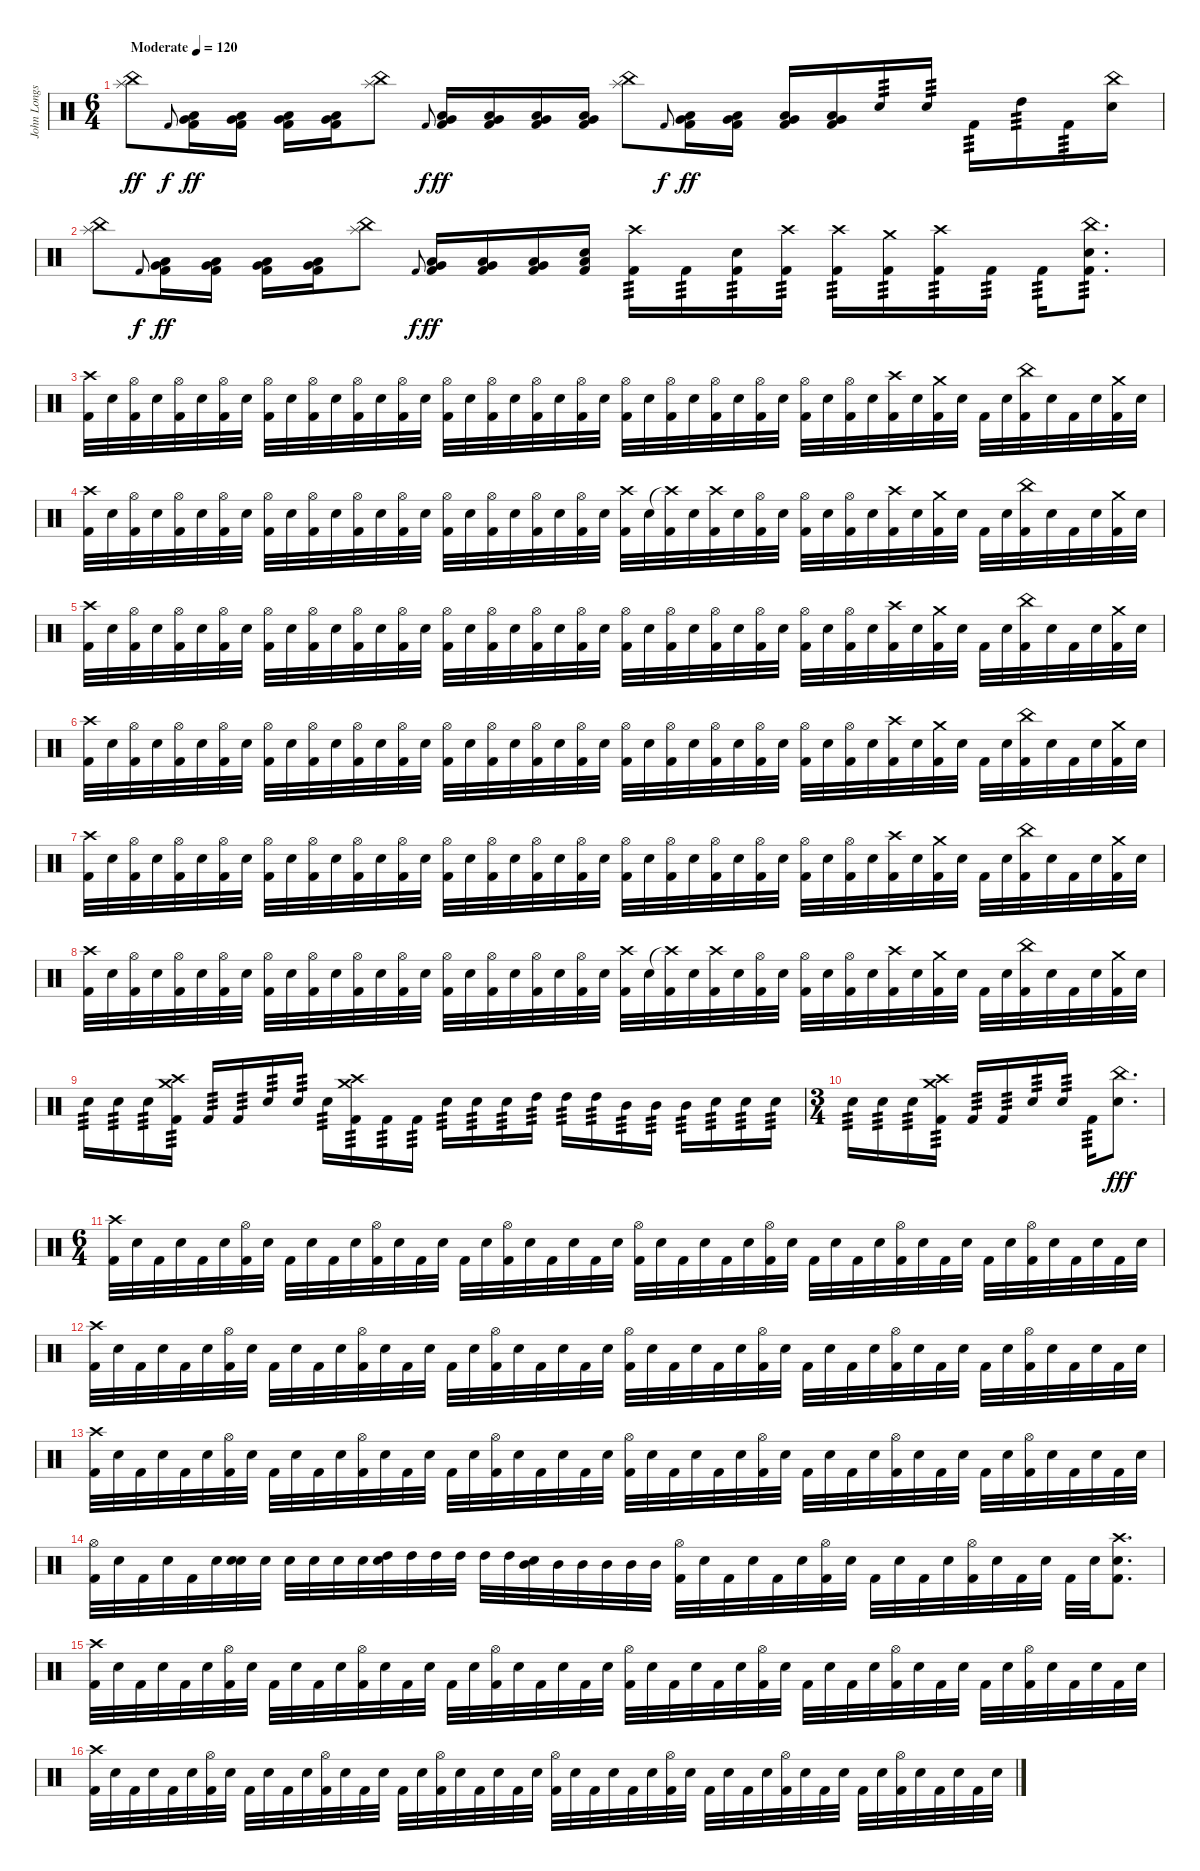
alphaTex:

\track ("John Longstreth" "John Longs") {instrument percussion}
\staff {score}
\articulation defaults
\ts (6 4)
\tempo (120 "Moderate")
\clef neutral
\ks c
("China (hit)" "Splash (hit)").8{dy ff} "Kick (hit) 2".8{gr onbeat dy f} ("Very Low Tom (hit)" "Low Tom (hit)" "Kick (hit) 2").16{dy ff} ("Very Low Tom (hit)" "Low Tom (hit)" "Kick (hit) 2").16 ("Very Low Tom (hit)" "Low Tom (hit)" "Kick (hit) 2").16 ("Very Low Tom (hit)" "Low Tom (hit)" "Kick (hit) 2").16 ("China (hit)" "Splash (hit)").8 "Kick (hit) 2".8{gr onbeat dy f} ("Very Low Tom (hit)" "Low Tom (hit)" "Kick (hit) 2").16{dy ff} ("Very Low Tom (hit)" "Low Tom (hit)" "Kick (hit) 2").16 ("Very Low Tom (hit)" "Low Tom (hit)" "Kick (hit) 2").16 ("Very Low Tom (hit)" "Low Tom (hit)" "Kick (hit) 2").16 ("China (hit)" "Splash (hit)").8 "Kick (hit) 2".8{gr onbeat dy f} ("Very Low Tom (hit)" "Low Tom (hit)" "Kick (hit) 2").16{dy ff} ("Very Low Tom (hit)" "Low Tom (hit)" "Kick (hit) 2").16 ("Very Low Tom (hit)" "Low Tom (hit)" "Kick (hit) 2").16 ("Very Low Tom (hit)" "Low Tom (hit)" "Kick (hit) 2").16 "Snare (hit) 2".16{tp 3} "Snare (hit) 2".16{tp 3} "Kick (hit) 2".16{tp 3} "High Tom (hit)".16{tp 3} "Kick (hit) 2".16{tp 3} ("China (hit)" "Snare (hit) 2").16 |
("China (hit)" "Splash (hit)").8 "Kick (hit) 2".8{gr onbeat dy f} ("Very Low Tom (hit)" "Low Tom (hit)" "Kick (hit) 2").16{dy ff} ("Very Low Tom (hit)" "Low Tom (hit)" "Kick (hit) 2").16 ("Very Low Tom (hit)" "Low Tom (hit)" "Kick (hit) 2").16 ("Very Low Tom (hit)" "Low Tom (hit)" "Kick (hit) 2").16 ("China (hit)" "Splash (hit)").8 "Kick (hit) 2".8{gr onbeat dy f} ("Very Low Tom (hit)" "Low Tom (hit)" "Kick (hit) 2").16{dy ff} ("Very Low Tom (hit)" "Low Tom (hit)" "Kick (hit) 2").16 ("Very Low Tom (hit)" "Low Tom (hit)" "Kick (hit) 2").16 ("Snare (hit) 2" "Low Tom (hit)" "Kick (hit) 2").16 ("Crash high (hit)" "Kick (hit) 2").16{tp 3} "Kick (hit) 2".16{tp 3} ("Snare (hit)" "Kick (hit) 2").16{tp 3} ("Crash high (hit)" "Kick (hit) 2").16{tp 3} ("Crash high (hit)" "Kick (hit) 2").16{tp 3} ("Crash medium (hit)" "Kick (hit) 2").16{tp 3} ("Crash high (hit)" "Kick (hit) 2").16{tp 3} "Kick (hit) 2".16{tp 3} "Kick (hit) 2".16{tp 3} ("China (hit)" "Kick (hit) 2" "Snare (hit) 2").8{d tp 3} |
("Crash high (hit)" "Kick (hit) 2").32 "Snare (hit) 2".32 ("Hi-Hat (open)" "Kick (hit) 2").32 "Snare (hit) 2".32 ("Hi-Hat (open)" "Kick (hit) 2").32 "Snare (hit) 2".32 ("Hi-Hat (open)" "Kick (hit) 2").32 "Snare (hit) 2".32 ("Hi-Hat (open)" "Kick (hit) 2").32 "Snare (hit) 2".32 ("Hi-Hat (open)" "Kick (hit) 2").32 "Snare (hit) 2".32 ("Hi-Hat (open)" "Kick (hit) 2").32 "Snare (hit) 2".32 ("Hi-Hat (open)" "Kick (hit) 2").32 "Snare (hit) 2".32 ("Hi-Hat (open)" "Kick (hit) 2").32 "Snare (hit) 2".32 ("Hi-Hat (open)" "Kick (hit) 2").32 "Snare (hit) 2".32 ("Hi-Hat (open)" "Kick (hit) 2").32 "Snare (hit) 2".32 ("Hi-Hat (open)" "Kick (hit) 2").32 "Snare (hit) 2".32 ("Hi-Hat (open)" "Kick (hit) 2").32 "Snare (hit) 2".32 ("Hi-Hat (open)" "Kick (hit) 2").32 "Snare (hit) 2".32 ("Hi-Hat (open)" "Kick (hit) 2").32 "Snare (hit) 2".32 ("Hi-Hat (open)" "Kick (hit) 2").32 "Snare (hit) 2".32 ("Hi-Hat (open)" "Kick (hit) 2").32 "Snare (hit) 2".32 ("Hi-Hat (open)" "Kick (hit) 2").32 "Snare (hit) 2".32 ("Crash high (hit)" "Kick (hit) 2").32 "Snare (hit) 2".32 ("Crash medium (hit)" "Kick (hit) 2").32 "Snare (hit) 2".32 "Kick (hit) 2".32 "Snare (hit) 2".32 ("China (hit)" "Kick (hit) 2").32 "Snare (hit) 2".32 "Kick (hit) 2".32 "Snare (hit) 2".32 ("Crash medium (hit)" "Kick (hit) 2").32 "Snare (hit) 2".32 |
("Crash high (hit)" "Kick (hit) 2").32 "Snare (hit) 2".32 ("Hi-Hat (open)" "Kick (hit) 2").32 "Snare (hit) 2".32 ("Hi-Hat (open)" "Kick (hit) 2").32 "Snare (hit) 2".32 ("Hi-Hat (open)" "Kick (hit) 2").32 "Snare (hit) 2".32 ("Hi-Hat (open)" "Kick (hit) 2").32 "Snare (hit) 2".32 ("Hi-Hat (open)" "Kick (hit) 2").32 "Snare (hit) 2".32 ("Hi-Hat (open)" "Kick (hit) 2").32 "Snare (hit) 2".32 ("Hi-Hat (open)" "Kick (hit) 2").32 "Snare (hit) 2".32 ("Hi-Hat (open)" "Kick (hit) 2").32 "Snare (hit) 2".32 ("Hi-Hat (open)" "Kick (hit) 2").32 "Snare (hit) 2".32 ("Hi-Hat (open)" "Kick (hit) 2").32 "Snare (hit) 2".32 ("Hi-Hat (open)" "Kick (hit) 2").32 "Snare (hit) 2".32 ("Crash high (hit)" "Kick (hit) 2").32 "Snare (hit) 2".32 ("Crash high (hit)"{t} "Kick (hit) 2").32 "Snare (hit) 2".32 ("Crash high (hit)" "Kick (hit) 2").32 "Snare (hit) 2".32 ("Hi-Hat (open)" "Kick (hit) 2").32 "Snare (hit) 2".32 ("Hi-Hat (open)" "Kick (hit) 2").32 "Snare (hit) 2".32 ("Hi-Hat (open)" "Kick (hit) 2").32 "Snare (hit) 2".32 ("Crash high (hit)" "Kick (hit) 2").32 "Snare (hit) 2".32 ("Crash medium (hit)" "Kick (hit) 2").32 "Snare (hit) 2".32 "Kick (hit) 2".32 "Snare (hit) 2".32 ("China (hit)" "Kick (hit) 2").32 "Snare (hit) 2".32 "Kick (hit) 2".32 "Snare (hit) 2".32 ("Crash medium (hit)" "Kick (hit) 2").32 "Snare (hit) 2".32 |
("Crash high (hit)" "Kick (hit) 2").32 "Snare (hit) 2".32 ("Hi-Hat (open)" "Kick (hit) 2").32 "Snare (hit) 2".32 ("Hi-Hat (open)" "Kick (hit) 2").32 "Snare (hit) 2".32 ("Hi-Hat (open)" "Kick (hit) 2").32 "Snare (hit) 2".32 ("Hi-Hat (open)" "Kick (hit) 2").32 "Snare (hit) 2".32 ("Hi-Hat (open)" "Kick (hit) 2").32 "Snare (hit) 2".32 ("Hi-Hat (open)" "Kick (hit) 2").32 "Snare (hit) 2".32 ("Hi-Hat (open)" "Kick (hit) 2").32 "Snare (hit) 2".32 ("Hi-Hat (open)" "Kick (hit) 2").32 "Snare (hit) 2".32 ("Hi-Hat (open)" "Kick (hit) 2").32 "Snare (hit) 2".32 ("Hi-Hat (open)" "Kick (hit) 2").32 "Snare (hit) 2".32 ("Hi-Hat (open)" "Kick (hit) 2").32 "Snare (hit) 2".32 ("Hi-Hat (open)" "Kick (hit) 2").32 "Snare (hit) 2".32 ("Hi-Hat (open)" "Kick (hit) 2").32 "Snare (hit) 2".32 ("Hi-Hat (open)" "Kick (hit) 2").32 "Snare (hit) 2".32 ("Hi-Hat (open)" "Kick (hit) 2").32 "Snare (hit) 2".32 ("Hi-Hat (open)" "Kick (hit) 2").32 "Snare (hit) 2".32 ("Hi-Hat (open)" "Kick (hit) 2").32 "Snare (hit) 2".32 ("Crash high (hit)" "Kick (hit) 2").32 "Snare (hit) 2".32 ("Crash medium (hit)" "Kick (hit) 2").32 "Snare (hit) 2".32 "Kick (hit) 2".32 "Snare (hit) 2".32 ("China (hit)" "Kick (hit) 2").32 "Snare (hit) 2".32 "Kick (hit) 2".32 "Snare (hit) 2".32 ("Crash medium (hit)" "Kick (hit) 2").32 "Snare (hit) 2".32 |
("Crash high (hit)" "Kick (hit) 2").32 "Snare (hit) 2".32 ("Hi-Hat (open)" "Kick (hit) 2").32 "Snare (hit) 2".32 ("Hi-Hat (open)" "Kick (hit) 2").32 "Snare (hit) 2".32 ("Hi-Hat (open)" "Kick (hit) 2").32 "Snare (hit) 2".32 ("Hi-Hat (open)" "Kick (hit) 2").32 "Snare (hit) 2".32 ("Hi-Hat (open)" "Kick (hit) 2").32 "Snare (hit) 2".32 ("Hi-Hat (open)" "Kick (hit) 2").32 "Snare (hit) 2".32 ("Hi-Hat (open)" "Kick (hit) 2").32 "Snare (hit) 2".32 ("Hi-Hat (open)" "Kick (hit) 2").32 "Snare (hit) 2".32 ("Hi-Hat (open)" "Kick (hit) 2").32 "Snare (hit) 2".32 ("Hi-Hat (open)" "Kick (hit) 2").32 "Snare (hit) 2".32 ("Hi-Hat (open)" "Kick (hit) 2").32 "Snare (hit) 2".32 ("Hi-Hat (open)" "Kick (hit) 2").32 "Snare (hit) 2".32 ("Hi-Hat (open)" "Kick (hit) 2").32 "Snare (hit) 2".32 ("Hi-Hat (open)" "Kick (hit) 2").32 "Snare (hit) 2".32 ("Hi-Hat (open)" "Kick (hit) 2").32 "Snare (hit) 2".32 ("Hi-Hat (open)" "Kick (hit) 2").32 "Snare (hit) 2".32 ("Hi-Hat (open)" "Kick (hit) 2").32 "Snare (hit) 2".32 ("Crash high (hit)" "Kick (hit) 2").32 "Snare (hit) 2".32 ("Crash medium (hit)" "Kick (hit) 2").32 "Snare (hit) 2".32 "Kick (hit) 2".32 "Snare (hit) 2".32 ("China (hit)" "Kick (hit) 2").32 "Snare (hit) 2".32 "Kick (hit) 2".32 "Snare (hit) 2".32 ("Crash medium (hit)" "Kick (hit) 2").32 "Snare (hit) 2".32 |
("Crash high (hit)" "Kick (hit) 2").32 "Snare (hit) 2".32 ("Hi-Hat (open)" "Kick (hit) 2").32 "Snare (hit) 2".32 ("Hi-Hat (open)" "Kick (hit) 2").32 "Snare (hit) 2".32 ("Hi-Hat (open)" "Kick (hit) 2").32 "Snare (hit) 2".32 ("Hi-Hat (open)" "Kick (hit) 2").32 "Snare (hit) 2".32 ("Hi-Hat (open)" "Kick (hit) 2").32 "Snare (hit) 2".32 ("Hi-Hat (open)" "Kick (hit) 2").32 "Snare (hit) 2".32 ("Hi-Hat (open)" "Kick (hit) 2").32 "Snare (hit) 2".32 ("Hi-Hat (open)" "Kick (hit) 2").32 "Snare (hit) 2".32 ("Hi-Hat (open)" "Kick (hit) 2").32 "Snare (hit) 2".32 ("Hi-Hat (open)" "Kick (hit) 2").32 "Snare (hit) 2".32 ("Hi-Hat (open)" "Kick (hit) 2").32 "Snare (hit) 2".32 ("Hi-Hat (open)" "Kick (hit) 2").32 "Snare (hit) 2".32 ("Hi-Hat (open)" "Kick (hit) 2").32 "Snare (hit) 2".32 ("Hi-Hat (open)" "Kick (hit) 2").32 "Snare (hit) 2".32 ("Hi-Hat (open)" "Kick (hit) 2").32 "Snare (hit) 2".32 ("Hi-Hat (open)" "Kick (hit) 2").32 "Snare (hit) 2".32 ("Hi-Hat (open)" "Kick (hit) 2").32 "Snare (hit) 2".32 ("Crash high (hit)" "Kick (hit) 2").32 "Snare (hit) 2".32 ("Crash medium (hit)" "Kick (hit) 2").32 "Snare (hit) 2".32 "Kick (hit) 2".32 "Snare (hit) 2".32 ("China (hit)" "Kick (hit) 2").32 "Snare (hit) 2".32 "Kick (hit) 2".32 "Snare (hit) 2".32 ("Crash medium (hit)" "Kick (hit) 2").32 "Snare (hit) 2".32 |
("Crash high (hit)" "Kick (hit) 2").32 "Snare (hit) 2".32 ("Hi-Hat (open)" "Kick (hit) 2").32 "Snare (hit) 2".32 ("Hi-Hat (open)" "Kick (hit) 2").32 "Snare (hit) 2".32 ("Hi-Hat (open)" "Kick (hit) 2").32 "Snare (hit) 2".32 ("Hi-Hat (open)" "Kick (hit) 2").32 "Snare (hit) 2".32 ("Hi-Hat (open)" "Kick (hit) 2").32 "Snare (hit) 2".32 ("Hi-Hat (open)" "Kick (hit) 2").32 "Snare (hit) 2".32 ("Hi-Hat (open)" "Kick (hit) 2").32 "Snare (hit) 2".32 ("Hi-Hat (open)" "Kick (hit) 2").32 "Snare (hit) 2".32 ("Hi-Hat (open)" "Kick (hit) 2").32 "Snare (hit) 2".32 ("Hi-Hat (open)" "Kick (hit) 2").32 "Snare (hit) 2".32 ("Hi-Hat (open)" "Kick (hit) 2").32 "Snare (hit) 2".32 ("Crash high (hit)" "Kick (hit) 2").32 "Snare (hit) 2".32 ("Crash high (hit)"{t} "Kick (hit) 2").32 "Snare (hit) 2".32 ("Crash high (hit)" "Kick (hit) 2").32 "Snare (hit) 2".32 ("Hi-Hat (open)" "Kick (hit) 2").32 "Snare (hit) 2".32 ("Hi-Hat (open)" "Kick (hit) 2").32 "Snare (hit) 2".32 ("Hi-Hat (open)" "Kick (hit) 2").32 "Snare (hit) 2".32 ("Crash high (hit)" "Kick (hit) 2").32 "Snare (hit) 2".32 ("Crash medium (hit)" "Kick (hit) 2").32 "Snare (hit) 2".32 "Kick (hit) 2".32 "Snare (hit) 2".32 ("China (hit)" "Kick (hit) 2").32 "Snare (hit) 2".32 "Kick (hit) 2".32 "Snare (hit) 2".32 ("Crash medium (hit)" "Kick (hit) 2").32 "Snare (hit) 2".32 |
"Snare (hit) 2".16{tp 3} "Snare (hit) 2".16{tp 3} "Snare (hit) 2".16{tp 3} ("Crash medium (hit)" "Crash high (hit)" "Kick (hit) 2").16{tp 3} "Kick (hit) 2".16{tp 3} "Kick (hit) 2".16{tp 3} "Snare (hit) 2".16{tp 3} "Snare (hit) 2".16{tp 3} "Snare (hit) 2".16{tp 3} ("Crash high (hit)" "Crash medium (hit)" "Kick (hit) 2").16{tp 3} "Kick (hit) 2".16{tp 3} "Kick (hit) 2".16{tp 3} "Snare (hit) 2".16{tp 3} "Snare (hit) 2".16{tp 3} "Snare (hit) 2".16{tp 3} "High Tom (hit)".16{tp 3} "High Tom (hit)".16{tp 3} "High Tom (hit)".16{tp 3} "Mid Tom (hit)".16{tp 3} "Mid Tom (hit)".16{tp 3} "Mid Tom (hit)".16{tp 3} "Snare (hit) 2".16{tp 3} "Snare (hit) 2".16{tp 3} "Snare (hit) 2".16{tp 3} |
\ts (3 4)
"Snare (hit) 2".16{tp 3} "Snare (hit) 2".16{tp 3} "Snare (hit) 2".16{tp 3} ("Crash high (hit)" "Crash medium (hit)" "Kick (hit) 2").16{tp 3} "Kick (hit) 2".16{tp 3} "Kick (hit) 2".16{tp 3} "Snare (hit) 2".16{tp 3} "Snare (hit) 2".16{tp 3} "Kick (hit) 2".16{tp 3} ("China (hit)" "Snare (hit) 2").8{d dy fff} |
\ts (6 4)
("Crash high (hit)" "Kick (hit) 2").32 "Snare (hit) 2".32 "Kick (hit) 2".32 "Snare (hit) 2".32 "Kick (hit) 2".32 "Snare (hit) 2".32 ("Hi-Hat (open)" "Kick (hit) 2").32 "Snare (hit) 2".32 "Kick (hit) 2".32 "Snare (hit) 2".32 "Kick (hit) 2".32 "Snare (hit) 2".32 ("Hi-Hat (open)" "Kick (hit) 2").32 "Snare (hit) 2".32 "Kick (hit) 2".32 "Snare (hit) 2".32 "Kick (hit) 2".32 "Snare (hit) 2".32 ("Hi-Hat (open)" "Kick (hit) 2").32 "Snare (hit) 2".32 "Kick (hit) 2".32 "Snare (hit) 2".32 "Kick (hit) 2".32 "Snare (hit) 2".32 ("Hi-Hat (open)" "Kick (hit) 2").32 "Snare (hit) 2".32 "Kick (hit) 2".32 "Snare (hit) 2".32 "Kick (hit) 2".32 "Snare (hit) 2".32 ("Hi-Hat (open)" "Kick (hit) 2").32 "Snare (hit) 2".32 "Kick (hit) 2".32 "Snare (hit) 2".32 "Kick (hit) 2".32 "Snare (hit) 2".32 ("Hi-Hat (open)" "Kick (hit) 2").32 "Snare (hit) 2".32 "Kick (hit) 2".32 "Snare (hit) 2".32 "Kick (hit) 2".32 "Snare (hit) 2".32 ("Hi-Hat (open)" "Kick (hit) 2").32 "Snare (hit) 2".32 "Kick (hit) 2".32 "Snare (hit) 2".32 "Kick (hit) 2".32 "Snare (hit) 2".32 |
("Crash high (hit)" "Kick (hit) 2").32 "Snare (hit) 2".32 "Kick (hit) 2".32 "Snare (hit) 2".32 "Kick (hit) 2".32 "Snare (hit) 2".32 ("Hi-Hat (open)" "Kick (hit) 2").32 "Snare (hit) 2".32 "Kick (hit) 2".32 "Snare (hit) 2".32 "Kick (hit) 2".32 "Snare (hit) 2".32 ("Hi-Hat (open)" "Kick (hit) 2").32 "Snare (hit) 2".32 "Kick (hit) 2".32 "Snare (hit) 2".32 "Kick (hit) 2".32 "Snare (hit) 2".32 ("Hi-Hat (open)" "Kick (hit) 2").32 "Snare (hit) 2".32 "Kick (hit) 2".32 "Snare (hit) 2".32 "Kick (hit) 2".32 "Snare (hit) 2".32 ("Hi-Hat (open)" "Kick (hit) 2").32 "Snare (hit) 2".32 "Kick (hit) 2".32 "Snare (hit) 2".32 "Kick (hit) 2".32 "Snare (hit) 2".32 ("Hi-Hat (open)" "Kick (hit) 2").32 "Snare (hit) 2".32 "Kick (hit) 2".32 "Snare (hit) 2".32 "Kick (hit) 2".32 "Snare (hit) 2".32 ("Hi-Hat (open)" "Kick (hit) 2").32 "Snare (hit) 2".32 "Kick (hit) 2".32 "Snare (hit) 2".32 "Kick (hit) 2".32 "Snare (hit) 2".32 ("Hi-Hat (open)" "Kick (hit) 2").32 "Snare (hit) 2".32 "Kick (hit) 2".32 "Snare (hit) 2".32 "Kick (hit) 2".32 "Snare (hit) 2".32 |
("Crash high (hit)" "Kick (hit) 2").32 "Snare (hit) 2".32 "Kick (hit) 2".32 "Snare (hit) 2".32 "Kick (hit) 2".32 "Snare (hit) 2".32 ("Hi-Hat (open)" "Kick (hit) 2").32 "Snare (hit) 2".32 "Kick (hit) 2".32 "Snare (hit) 2".32 "Kick (hit) 2".32 "Snare (hit) 2".32 ("Hi-Hat (open)" "Kick (hit) 2").32 "Snare (hit) 2".32 "Kick (hit) 2".32 "Snare (hit) 2".32 "Kick (hit) 2".32 "Snare (hit) 2".32 ("Hi-Hat (open)" "Kick (hit) 2").32 "Snare (hit) 2".32 "Kick (hit) 2".32 "Snare (hit) 2".32 "Kick (hit) 2".32 "Snare (hit) 2".32 ("Hi-Hat (open)" "Kick (hit) 2").32 "Snare (hit) 2".32 "Kick (hit) 2".32 "Snare (hit) 2".32 "Kick (hit) 2".32 "Snare (hit) 2".32 ("Hi-Hat (open)" "Kick (hit) 2").32 "Snare (hit) 2".32 "Kick (hit) 2".32 "Snare (hit) 2".32 "Kick (hit) 2".32 "Snare (hit) 2".32 ("Hi-Hat (open)" "Kick (hit) 2").32 "Snare (hit) 2".32 "Kick (hit) 2".32 "Snare (hit) 2".32 "Kick (hit) 2".32 "Snare (hit) 2".32 ("Hi-Hat (open)" "Kick (hit) 2").32 "Snare (hit) 2".32 "Kick (hit) 2".32 "Snare (hit) 2".32 "Kick (hit) 2".32 "Snare (hit) 2".32 |
("Hi-Hat (open)" "Kick (hit) 2").32 "Snare (hit) 2".32 "Kick (hit) 2".32 "Snare (hit) 2".32 "Kick (hit) 2".32 "Snare (hit) 2".32 ("Snare (hit)" "Snare (hit) 2").32 "Snare (hit) 2".32 "Snare (hit) 2".32 "Snare (hit) 2".32 "Snare (hit) 2".32 "Snare (hit) 2".32 ("Snare (hit)" "High Tom (hit)").32 "High Tom (hit)".32 "High Tom (hit)".32 "High Tom (hit)".32 "High Tom (hit)".32 "High Tom (hit)".32 ("Snare (hit)" "Mid Tom (hit)").32 "Mid Tom (hit)".32 "Mid Tom (hit)".32 "Mid Tom (hit)".32 "Mid Tom (hit)".32 "Mid Tom (hit)".32 ("Hi-Hat (open)" "Kick (hit) 2").32 "Snare (hit) 2".32 "Kick (hit) 2".32 "Snare (hit) 2".32 "Kick (hit) 2".32 "Snare (hit) 2".32 ("Hi-Hat (open)" "Kick (hit) 2").32 "Snare (hit) 2".32 "Kick (hit) 2".32 "Snare (hit) 2".32 "Kick (hit) 2".32 "Snare (hit) 2".32 ("Hi-Hat (open)" "Kick (hit) 2").32 "Snare (hit) 2".32 "Kick (hit) 2".32 "Snare (hit) 2".32 "Kick (hit) 2".32 "Snare (hit) 2".32 ("Kick (hit) 2" "Crash high (hit)" "Snare (hit) 2").8{d} |
("Crash high (hit)" "Kick (hit) 2").32 "Snare (hit) 2".32 "Kick (hit) 2".32 "Snare (hit) 2".32 "Kick (hit) 2".32 "Snare (hit) 2".32 ("Hi-Hat (open)" "Kick (hit) 2").32 "Snare (hit) 2".32 "Kick (hit) 2".32 "Snare (hit) 2".32 "Kick (hit) 2".32 "Snare (hit) 2".32 ("Hi-Hat (open)" "Kick (hit) 2").32 "Snare (hit) 2".32 "Kick (hit) 2".32 "Snare (hit) 2".32 "Kick (hit) 2".32 "Snare (hit) 2".32 ("Hi-Hat (open)" "Kick (hit) 2").32 "Snare (hit) 2".32 "Kick (hit) 2".32 "Snare (hit) 2".32 "Kick (hit) 2".32 "Snare (hit) 2".32 ("Hi-Hat (open)" "Kick (hit) 2").32 "Snare (hit) 2".32 "Kick (hit) 2".32 "Snare (hit) 2".32 "Kick (hit) 2".32 "Snare (hit) 2".32 ("Hi-Hat (open)" "Kick (hit) 2").32 "Snare (hit) 2".32 "Kick (hit) 2".32 "Snare (hit) 2".32 "Kick (hit) 2".32 "Snare (hit) 2".32 ("Hi-Hat (open)" "Kick (hit) 2").32 "Snare (hit) 2".32 "Kick (hit) 2".32 "Snare (hit) 2".32 "Kick (hit) 2".32 "Snare (hit) 2".32 ("Hi-Hat (open)" "Kick (hit) 2").32 "Snare (hit) 2".32 "Kick (hit) 2".32 "Snare (hit) 2".32 "Kick (hit) 2".32 "Snare (hit) 2".32 |
("Crash high (hit)" "Kick (hit) 2").32 "Snare (hit) 2".32 "Kick (hit) 2".32 "Snare (hit) 2".32 "Kick (hit) 2".32 "Snare (hit) 2".32 ("Hi-Hat (open)" "Kick (hit) 2").32 "Snare (hit) 2".32 "Kick (hit) 2".32 "Snare (hit) 2".32 "Kick (hit) 2".32 "Snare (hit) 2".32 ("Hi-Hat (open)" "Kick (hit) 2").32 "Snare (hit) 2".32 "Kick (hit) 2".32 "Snare (hit) 2".32 "Kick (hit) 2".32 "Snare (hit) 2".32 ("Hi-Hat (open)" "Kick (hit) 2").32 "Snare (hit) 2".32 "Kick (hit) 2".32 "Snare (hit) 2".32 "Kick (hit) 2".32 "Snare (hit) 2".32 ("Hi-Hat (open)" "Kick (hit) 2").32 "Snare (hit) 2".32 "Kick (hit) 2".32 "Snare (hit) 2".32 "Kick (hit) 2".32 "Snare (hit) 2".32 ("Hi-Hat (open)" "Kick (hit) 2").32 "Snare (hit) 2".32 "Kick (hit) 2".32 "Snare (hit) 2".32 "Kick (hit) 2".32 "Snare (hit) 2".32 ("Hi-Hat (open)" "Kick (hit) 2").32 "Snare (hit) 2".32 "Kick (hit) 2".32 "Snare (hit) 2".32 "Kick (hit) 2".32 "Snare (hit) 2".32 ("Hi-Hat (open)" "Kick (hit) 2").32 "Snare (hit) 2".32 "Kick (hit) 2".32 "Snare (hit) 2".32 "Kick (hit) 2".32 "Snare (hit) 2".32
